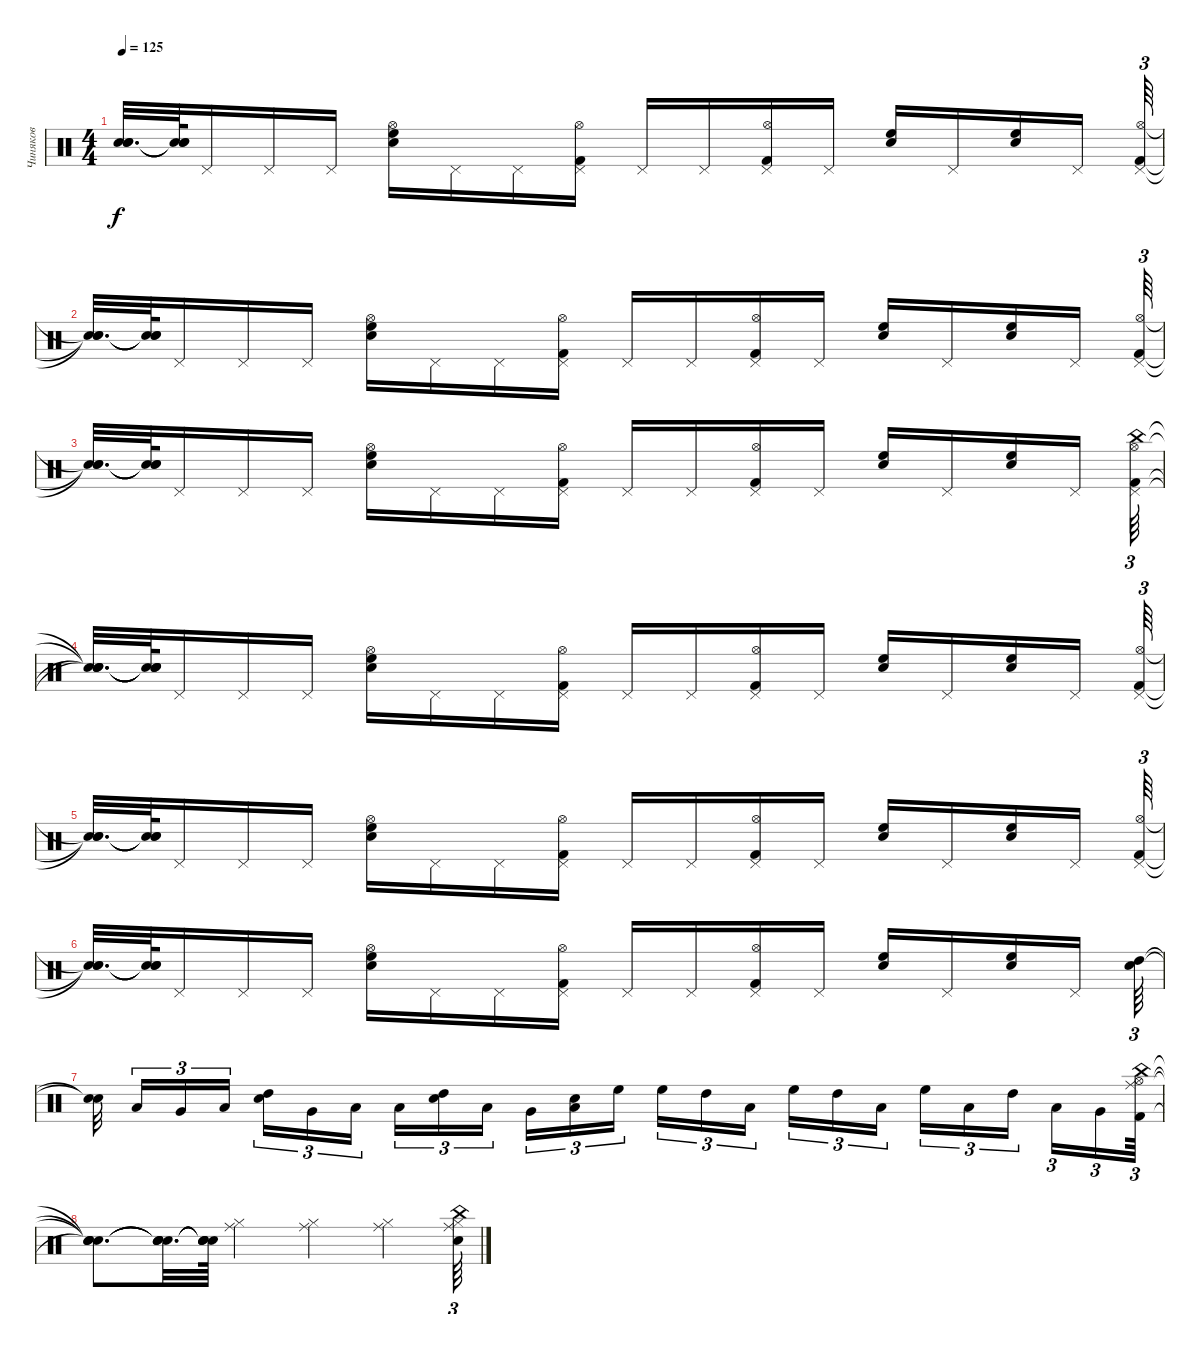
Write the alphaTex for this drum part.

\track ("Чиняков" "Чиняков") {instrument percussion}
\staff {score}
\articulation defaults
\ts (4 4)
\tempo 125
\clef neutral
\ks c
("Snare (hit)"{t} "Snare (hit)"{t} "Snare (hit)"{t}).32{d dy f} ("Snare (hit)"{t} "Snare (hit)"{t} "Snare (hit)"{t}).64 "Pedal Hi-Hat (hit)".16 "Pedal Hi-Hat (hit)".16 "Pedal Hi-Hat (hit)".16 ("Electric Snare (hit)" "High Floor Tom (hit)" "Hi-Hat (open)").16 "Pedal Hi-Hat (hit)".16 "Pedal Hi-Hat (hit)".16 ("Pedal Hi-Hat (hit)" "Kick (hit) 2" "Hi-Hat (open)").16 "Pedal Hi-Hat (hit)".16 "Pedal Hi-Hat (hit)".16 ("Pedal Hi-Hat (hit)" "Kick (hit) 2" "Hi-Hat (open)").16 "Pedal Hi-Hat (hit)".16 ("High Floor Tom (hit)" "Electric Snare (hit)").16 "Pedal Hi-Hat (hit)".16 ("High Floor Tom (hit)" "Electric Snare (hit)").16 "Pedal Hi-Hat (hit)".16 ("Pedal Hi-Hat (hit)" "Kick (hit) 2" "Hi-Hat (open)").64{tu (3 2)} |
("Snare (hit)"{t} "Snare (hit)"{t} "Snare (hit)"{t}).32{d} ("Snare (hit)"{t} "Snare (hit)"{t} "Snare (hit)"{t}).64 "Pedal Hi-Hat (hit)".16 "Pedal Hi-Hat (hit)".16 "Pedal Hi-Hat (hit)".16 ("Electric Snare (hit)" "High Floor Tom (hit)" "Hi-Hat (open)").16 "Pedal Hi-Hat (hit)".16 "Pedal Hi-Hat (hit)".16 ("Pedal Hi-Hat (hit)" "Kick (hit) 2" "Hi-Hat (open)").16 "Pedal Hi-Hat (hit)".16 "Pedal Hi-Hat (hit)".16 ("Pedal Hi-Hat (hit)" "Kick (hit) 2" "Hi-Hat (open)").16 "Pedal Hi-Hat (hit)".16 ("High Floor Tom (hit)" "Electric Snare (hit)").16 "Pedal Hi-Hat (hit)".16 ("High Floor Tom (hit)" "Electric Snare (hit)").16 "Pedal Hi-Hat (hit)".16 ("Pedal Hi-Hat (hit)" "Kick (hit) 2" "Hi-Hat (open)").64{tu (3 2)} |
("Snare (hit)"{t} "Snare (hit)"{t} "Snare (hit)"{t}).32{d} ("Snare (hit)"{t} "Snare (hit)"{t} "Snare (hit)"{t}).64 "Pedal Hi-Hat (hit)".16 "Pedal Hi-Hat (hit)".16 "Pedal Hi-Hat (hit)".16 ("Electric Snare (hit)" "High Floor Tom (hit)" "Hi-Hat (open)").16 "Pedal Hi-Hat (hit)".16 "Pedal Hi-Hat (hit)".16 ("Pedal Hi-Hat (hit)" "Kick (hit) 2" "Hi-Hat (open)").16 "Pedal Hi-Hat (hit)".16 "Pedal Hi-Hat (hit)".16 ("Pedal Hi-Hat (hit)" "Kick (hit) 2" "Hi-Hat (open)").16 "Pedal Hi-Hat (hit)".16 ("High Floor Tom (hit)" "Electric Snare (hit)").16 "Pedal Hi-Hat (hit)".16 ("High Floor Tom (hit)" "Electric Snare (hit)").16 "Pedal Hi-Hat (hit)".16 ("Pedal Hi-Hat (hit)" "Kick (hit) 2" "Hi-Hat (open)" "China (hit)").64{tu (3 2)} |
("Snare (hit)"{t} "Snare (hit)"{t} "Snare (hit)"{t} "Snare (hit)"{t}).32{d} ("Snare (hit)"{t} "Snare (hit)"{t} "Snare (hit)"{t} "Snare (hit)"{t}).64 "Pedal Hi-Hat (hit)".16 "Pedal Hi-Hat (hit)".16 "Pedal Hi-Hat (hit)".16 ("Electric Snare (hit)" "High Floor Tom (hit)" "Hi-Hat (open)").16 "Pedal Hi-Hat (hit)".16 "Pedal Hi-Hat (hit)".16 ("Pedal Hi-Hat (hit)" "Kick (hit) 2" "Hi-Hat (open)").16 "Pedal Hi-Hat (hit)".16 "Pedal Hi-Hat (hit)".16 ("Pedal Hi-Hat (hit)" "Kick (hit) 2" "Hi-Hat (open)").16 "Pedal Hi-Hat (hit)".16 ("High Floor Tom (hit)" "Electric Snare (hit)").16 "Pedal Hi-Hat (hit)".16 ("High Floor Tom (hit)" "Electric Snare (hit)").16 "Pedal Hi-Hat (hit)".16 ("Pedal Hi-Hat (hit)" "Kick (hit) 2" "Hi-Hat (open)").64{tu (3 2)} |
("Snare (hit)"{t} "Snare (hit)"{t} "Snare (hit)"{t}).32{d} ("Snare (hit)"{t} "Snare (hit)"{t} "Snare (hit)"{t}).64 "Pedal Hi-Hat (hit)".16 "Pedal Hi-Hat (hit)".16 "Pedal Hi-Hat (hit)".16 ("Electric Snare (hit)" "High Floor Tom (hit)" "Hi-Hat (open)").16 "Pedal Hi-Hat (hit)".16 "Pedal Hi-Hat (hit)".16 ("Pedal Hi-Hat (hit)" "Kick (hit) 2" "Hi-Hat (open)").16 "Pedal Hi-Hat (hit)".16 "Pedal Hi-Hat (hit)".16 ("Pedal Hi-Hat (hit)" "Kick (hit) 2" "Hi-Hat (open)").16 "Pedal Hi-Hat (hit)".16 ("High Floor Tom (hit)" "Electric Snare (hit)").16 "Pedal Hi-Hat (hit)".16 ("High Floor Tom (hit)" "Electric Snare (hit)").16 "Pedal Hi-Hat (hit)".16 ("Pedal Hi-Hat (hit)" "Kick (hit) 2" "Hi-Hat (open)").64{tu (3 2)} |
("Snare (hit)"{t} "Snare (hit)"{t} "Snare (hit)"{t}).32{d} ("Snare (hit)"{t} "Snare (hit)"{t} "Snare (hit)"{t}).64 "Pedal Hi-Hat (hit)".16 "Pedal Hi-Hat (hit)".16 "Pedal Hi-Hat (hit)".16 ("Electric Snare (hit)" "High Floor Tom (hit)" "Hi-Hat (open)").16 "Pedal Hi-Hat (hit)".16 "Pedal Hi-Hat (hit)".16 ("Pedal Hi-Hat (hit)" "Kick (hit) 2" "Hi-Hat (open)").16 "Pedal Hi-Hat (hit)".16 "Pedal Hi-Hat (hit)".16 ("Pedal Hi-Hat (hit)" "Kick (hit) 2" "Hi-Hat (open)").16 "Pedal Hi-Hat (hit)".16 ("High Floor Tom (hit)" "Electric Snare (hit)").16 "Pedal Hi-Hat (hit)".16 ("High Floor Tom (hit)" "Electric Snare (hit)").16 "Pedal Hi-Hat (hit)".16 ("High Tom (hit)" "Electric Snare (hit)").64{tu (3 2)} |
("Snare (hit)"{t} "Snare (hit)"{t}).32{beam splitsecondary} "Low Tom (hit)".16{tu (3 2)} "Very Low Tom (hit)".16{tu (3 2)} "Low Floor Tom (hit)".16{tu (3 2) beam splitsecondary} ("High Tom (hit)" "Electric Snare (hit)").16{tu (3 2)} "Very Low Tom (hit)".16{tu (3 2)} "Low Tom (hit)".16{tu (3 2)} "Low Floor Tom (hit)".16{tu (3 2)} ("High Tom (hit)" "Electric Snare (hit)").16{tu (3 2)} "Low Tom (hit)".16{tu (3 2) beam splitsecondary} "Very Low Tom (hit)".16{tu (3 2)} ("Low Floor Tom (hit)" "Electric Snare (hit)").16{tu (3 2)} "High Floor Tom (hit)".16{tu (3 2)} "High Floor Tom (hit)".16{tu (3 2)} "High Tom (hit)".16{tu (3 2)} "Low Tom (hit)".16{tu (3 2) beam splitsecondary} "High Floor Tom (hit)".16{tu (3 2)} "High Tom (hit)".16{tu (3 2)} "Low Tom (hit)".16{tu (3 2)} "High Floor Tom (hit)".16{tu (3 2)} "Low Tom (hit)".16{tu (3 2)} "High Tom (hit)".16{tu (3 2) beam splitsecondary} "Low Tom (hit)".16{tu (3 2)} "Very Low Tom (hit)".16{tu (3 2)} ("Kick (hit) 2" "China (hit)" "Hi-Hat (open)" "Ride (middle)").64{tu (3 2)} |
("Snare (hit)"{t} "Snare (hit)"{t} "Snare (hit)"{t} "Snare (hit)"{t}).8{d} ("Snare (hit)"{t} "Snare (hit)"{t} "Snare (hit)"{t} "Snare (hit)"{t}).32{d} ("Snare (hit)"{t} "Snare (hit)"{t} "Snare (hit)"{t} "Snare (hit)"{t}).64 ("Hi-Hat (closed)" "Ride (middle)").4 ("Hi-Hat (closed)" "Ride (middle)").4 ("Hi-Hat (closed)" "Ride (middle)").4 ("Electric Snare (hit)" "China (hit)" "Hi-Hat (closed)" "Ride (middle)").64{tu (3 2)}
